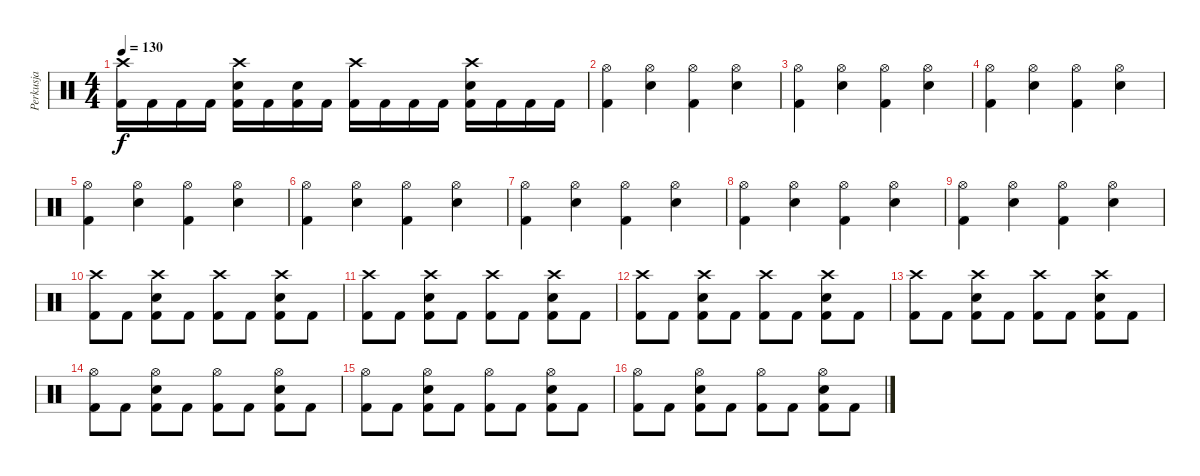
\track ("Perkusja" "Perkusja") {instrument percussion}
\staff {score}
\articulation defaults
\ts (4 4)
\tempo 130
\clef neutral
\ks c
("Crash high (hit)" "Kick (hit) 2").16{dy f} "Kick (hit) 2".16 "Kick (hit) 2".16 "Kick (hit) 2".16 ("Crash high (hit)" "Snare (hit) 2" "Kick (hit) 2").16 "Kick (hit) 2".16 ("Snare (hit) 2" "Kick (hit) 2").16 "Kick (hit) 2".16 ("Crash high (hit)" "Kick (hit) 2").16 "Kick (hit) 2".16 "Kick (hit) 2".16 "Kick (hit) 2".16 ("Crash high (hit)" "Snare (hit) 2" "Kick (hit) 2").16 "Kick (hit) 2".16 "Kick (hit) 2".16 "Kick (hit) 2".16 |
("Hi-Hat (open)" "Kick (hit) 2").4 ("Hi-Hat (open)" "Snare (hit) 2").4 ("Hi-Hat (open)" "Kick (hit) 2").4 ("Hi-Hat (open)" "Snare (hit) 2").4 |
("Hi-Hat (open)" "Kick (hit) 2").4 ("Hi-Hat (open)" "Snare (hit) 2").4 ("Hi-Hat (open)" "Kick (hit) 2").4 ("Hi-Hat (open)" "Snare (hit) 2").4 |
("Hi-Hat (open)" "Kick (hit) 2").4 ("Hi-Hat (open)" "Snare (hit) 2").4 ("Hi-Hat (open)" "Kick (hit) 2").4 ("Hi-Hat (open)" "Snare (hit) 2").4 |
("Hi-Hat (open)" "Kick (hit) 2").4 ("Hi-Hat (open)" "Snare (hit) 2").4 ("Hi-Hat (open)" "Kick (hit) 2").4 ("Hi-Hat (open)" "Snare (hit) 2").4 |
("Hi-Hat (open)" "Kick (hit) 2").4 ("Hi-Hat (open)" "Snare (hit) 2").4 ("Hi-Hat (open)" "Kick (hit) 2").4 ("Hi-Hat (open)" "Snare (hit) 2").4 |
("Hi-Hat (open)" "Kick (hit) 2").4 ("Hi-Hat (open)" "Snare (hit) 2").4 ("Hi-Hat (open)" "Kick (hit) 2").4 ("Hi-Hat (open)" "Snare (hit) 2").4 |
("Hi-Hat (open)" "Kick (hit) 2").4 ("Hi-Hat (open)" "Snare (hit) 2").4 ("Hi-Hat (open)" "Kick (hit) 2").4 ("Hi-Hat (open)" "Snare (hit) 2").4 |
("Hi-Hat (open)" "Kick (hit) 2").4 ("Hi-Hat (open)" "Snare (hit) 2").4 ("Hi-Hat (open)" "Kick (hit) 2").4 ("Hi-Hat (open)" "Snare (hit) 2").4 |
("Crash high (hit)" "Kick (hit) 2").8 "Kick (hit) 2".8 ("Crash high (hit)" "Snare (hit) 2" "Kick (hit) 2").8 "Kick (hit) 2".8 ("Crash high (hit)" "Kick (hit) 2").8 "Kick (hit) 2".8 ("Crash high (hit)" "Snare (hit) 2" "Kick (hit) 2").8 "Kick (hit) 2".8 |
("Crash high (hit)" "Kick (hit) 2").8 "Kick (hit) 2".8 ("Crash high (hit)" "Snare (hit) 2" "Kick (hit) 2").8 "Kick (hit) 2".8 ("Crash high (hit)" "Kick (hit) 2").8 "Kick (hit) 2".8 ("Crash high (hit)" "Snare (hit) 2" "Kick (hit) 2").8 "Kick (hit) 2".8 |
("Crash high (hit)" "Kick (hit) 2").8 "Kick (hit) 2".8 ("Crash high (hit)" "Snare (hit) 2" "Kick (hit) 2").8 "Kick (hit) 2".8 ("Crash high (hit)" "Kick (hit) 2").8 "Kick (hit) 2".8 ("Crash high (hit)" "Snare (hit) 2" "Kick (hit) 2").8 "Kick (hit) 2".8 |
("Crash high (hit)" "Kick (hit) 2").8 "Kick (hit) 2".8 ("Crash high (hit)" "Snare (hit) 2" "Kick (hit) 2").8 "Kick (hit) 2".8 ("Crash high (hit)" "Kick (hit) 2").8 "Kick (hit) 2".8 ("Crash high (hit)" "Snare (hit) 2" "Kick (hit) 2").8 "Kick (hit) 2".8 |
("Hi-Hat (open)" "Kick (hit) 2").8 "Kick (hit) 2".8 ("Hi-Hat (open)" "Snare (hit) 2" "Kick (hit) 2").8 "Kick (hit) 2".8 ("Hi-Hat (open)" "Kick (hit) 2").8 "Kick (hit) 2".8 ("Hi-Hat (open)" "Snare (hit) 2" "Kick (hit) 2").8 "Kick (hit) 2".8 |
("Hi-Hat (open)" "Kick (hit) 2").8 "Kick (hit) 2".8 ("Hi-Hat (open)" "Snare (hit) 2" "Kick (hit) 2").8 "Kick (hit) 2".8 ("Hi-Hat (open)" "Kick (hit) 2").8 "Kick (hit) 2".8 ("Hi-Hat (open)" "Snare (hit) 2" "Kick (hit) 2").8 "Kick (hit) 2".8 |
("Hi-Hat (open)" "Kick (hit) 2").8 "Kick (hit) 2".8 ("Hi-Hat (open)" "Snare (hit) 2" "Kick (hit) 2").8 "Kick (hit) 2".8 ("Hi-Hat (open)" "Kick (hit) 2").8 "Kick (hit) 2".8 ("Hi-Hat (open)" "Snare (hit) 2" "Kick (hit) 2").8 "Kick (hit) 2".8
